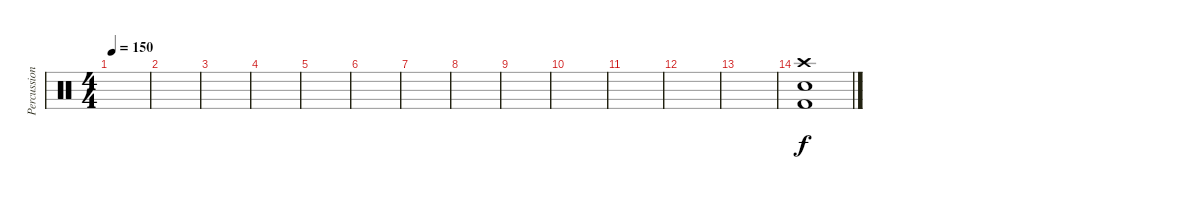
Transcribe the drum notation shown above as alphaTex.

\track ("Percussion" "Percussion") {instrument percussion}
\staff {score}
\articulation defaults
\ts (4 4)
\tempo 150
\clef neutral
\ks c
|
|
|
|
|
|
|
|
|
|
|
|
|
("Crash high (hit)" "Kick (hit) 2" "Electric Snare (hit)").1
